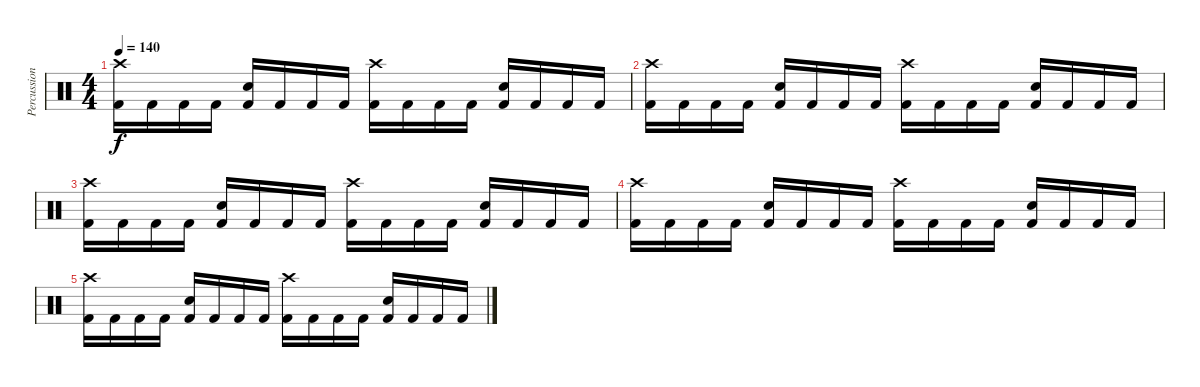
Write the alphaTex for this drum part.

\track ("Percussion" "Percussion") {instrument percussion}
\staff {score}
\articulation defaults
\ts (4 4)
\tempo 140
\clef neutral
\ks c
("Kick (hit) 2" "Crash high (hit)").16{dy f} "Kick (hit) 2".16 "Kick (hit) 2".16 "Kick (hit) 2".16 ("Kick (hit) 2" "Electric Snare (hit)").16 "Kick (hit) 2".16 "Kick (hit) 2".16 "Kick (hit) 2".16 ("Kick (hit) 2" "Crash high (hit)").16 "Kick (hit) 2".16 "Kick (hit) 2".16 "Kick (hit) 2".16 ("Kick (hit) 2" "Electric Snare (hit)").16 "Kick (hit) 2".16 "Kick (hit) 2".16 "Kick (hit) 2".16 |
("Kick (hit) 2" "Crash high (hit)").16 "Kick (hit) 2".16 "Kick (hit) 2".16 "Kick (hit) 2".16 ("Kick (hit) 2" "Electric Snare (hit)").16 "Kick (hit) 2".16 "Kick (hit) 2".16 "Kick (hit) 2".16 ("Kick (hit) 2" "Crash high (hit)").16 "Kick (hit) 2".16 "Kick (hit) 2".16 "Kick (hit) 2".16 ("Kick (hit) 2" "Electric Snare (hit)").16 "Kick (hit) 2".16 "Kick (hit) 2".16 "Kick (hit) 2".16 |
("Kick (hit) 2" "Crash high (hit)").16 "Kick (hit) 2".16 "Kick (hit) 2".16 "Kick (hit) 2".16 ("Kick (hit) 2" "Electric Snare (hit)").16 "Kick (hit) 2".16 "Kick (hit) 2".16 "Kick (hit) 2".16 ("Kick (hit) 2" "Crash high (hit)").16 "Kick (hit) 2".16 "Kick (hit) 2".16 "Kick (hit) 2".16 ("Kick (hit) 2" "Electric Snare (hit)").16 "Kick (hit) 2".16 "Kick (hit) 2".16 "Kick (hit) 2".16 |
("Kick (hit) 2" "Crash high (hit)").16 "Kick (hit) 2".16 "Kick (hit) 2".16 "Kick (hit) 2".16 ("Kick (hit) 2" "Electric Snare (hit)").16 "Kick (hit) 2".16 "Kick (hit) 2".16 "Kick (hit) 2".16 ("Kick (hit) 2" "Crash high (hit)").16 "Kick (hit) 2".16 "Kick (hit) 2".16 "Kick (hit) 2".16 ("Kick (hit) 2" "Electric Snare (hit)").16 "Kick (hit) 2".16 "Kick (hit) 2".16 "Kick (hit) 2".16 |
("Kick (hit) 2" "Crash high (hit)").16 "Kick (hit) 2".16 "Kick (hit) 2".16 "Kick (hit) 2".16 ("Kick (hit) 2" "Electric Snare (hit)").16 "Kick (hit) 2".16 "Kick (hit) 2".16 "Kick (hit) 2".16 ("Kick (hit) 2" "Crash high (hit)").16 "Kick (hit) 2".16 "Kick (hit) 2".16 "Kick (hit) 2".16 ("Kick (hit) 2" "Electric Snare (hit)").16 "Kick (hit) 2".16 "Kick (hit) 2".16 "Kick (hit) 2".16
